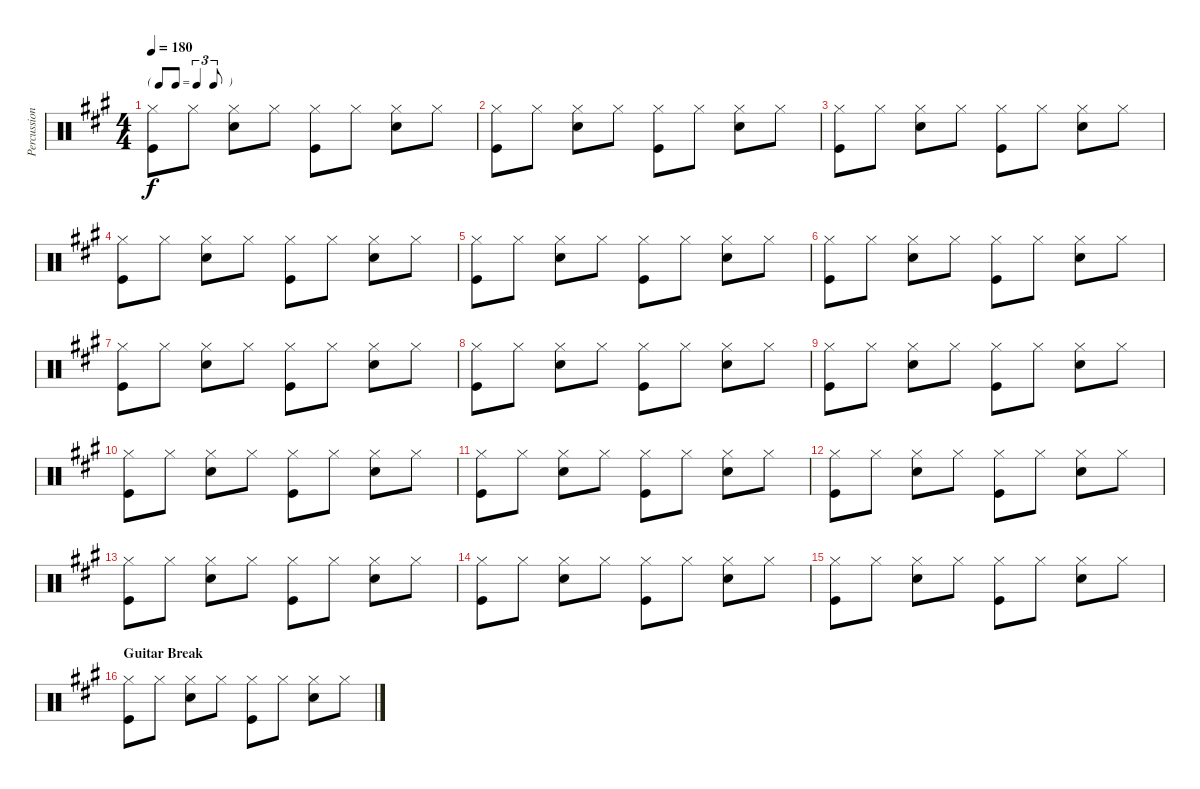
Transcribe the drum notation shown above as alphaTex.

\track ("Percussion" "Percussion") {instrument percussion}
\staff {score}
\articulation defaults
\ts (4 4)
\tf triplet8th
\tempo 180
\clef neutral
\ks a
("Hi-Hat (closed)" "Kick (hit)").8{dy f} "Hi-Hat (closed)".8 ("Hi-Hat (closed)" "Snare (hit) 2").8 "Hi-Hat (closed)".8 ("Hi-Hat (closed)" "Kick (hit)").8 "Hi-Hat (closed)".8 ("Hi-Hat (closed)" "Snare (hit) 2").8 "Hi-Hat (closed)".8 |
("Hi-Hat (closed)" "Kick (hit)").8 "Hi-Hat (closed)".8 ("Hi-Hat (closed)" "Snare (hit) 2").8 "Hi-Hat (closed)".8 ("Hi-Hat (closed)" "Kick (hit)").8 "Hi-Hat (closed)".8 ("Hi-Hat (closed)" "Snare (hit) 2").8 "Hi-Hat (closed)".8 |
("Hi-Hat (closed)" "Kick (hit)").8 "Hi-Hat (closed)".8 ("Hi-Hat (closed)" "Snare (hit) 2").8 "Hi-Hat (closed)".8 ("Hi-Hat (closed)" "Kick (hit)").8 "Hi-Hat (closed)".8 ("Hi-Hat (closed)" "Snare (hit) 2").8 "Hi-Hat (closed)".8 |
("Hi-Hat (closed)" "Kick (hit)").8 "Hi-Hat (closed)".8 ("Hi-Hat (closed)" "Snare (hit) 2").8 "Hi-Hat (closed)".8 ("Hi-Hat (closed)" "Kick (hit)").8 "Hi-Hat (closed)".8 ("Hi-Hat (closed)" "Snare (hit) 2").8 "Hi-Hat (closed)".8 |
("Hi-Hat (closed)" "Kick (hit)").8 "Hi-Hat (closed)".8 ("Hi-Hat (closed)" "Snare (hit) 2").8 "Hi-Hat (closed)".8 ("Hi-Hat (closed)" "Kick (hit)").8 "Hi-Hat (closed)".8 ("Hi-Hat (closed)" "Snare (hit) 2").8 "Hi-Hat (closed)".8 |
("Hi-Hat (closed)" "Kick (hit)").8 "Hi-Hat (closed)".8 ("Hi-Hat (closed)" "Snare (hit) 2").8 "Hi-Hat (closed)".8 ("Hi-Hat (closed)" "Kick (hit)").8 "Hi-Hat (closed)".8 ("Hi-Hat (closed)" "Snare (hit) 2").8 "Hi-Hat (closed)".8 |
("Hi-Hat (closed)" "Kick (hit)").8 "Hi-Hat (closed)".8 ("Hi-Hat (closed)" "Snare (hit) 2").8 "Hi-Hat (closed)".8 ("Hi-Hat (closed)" "Kick (hit)").8 "Hi-Hat (closed)".8 ("Hi-Hat (closed)" "Snare (hit) 2").8 "Hi-Hat (closed)".8 |
("Hi-Hat (closed)" "Kick (hit)").8 "Hi-Hat (closed)".8 ("Hi-Hat (closed)" "Snare (hit) 2").8 "Hi-Hat (closed)".8 ("Hi-Hat (closed)" "Kick (hit)").8 "Hi-Hat (closed)".8 ("Hi-Hat (closed)" "Snare (hit) 2").8 "Hi-Hat (closed)".8 |
("Hi-Hat (closed)" "Kick (hit)").8 "Hi-Hat (closed)".8 ("Hi-Hat (closed)" "Snare (hit) 2").8 "Hi-Hat (closed)".8 ("Hi-Hat (closed)" "Kick (hit)").8 "Hi-Hat (closed)".8 ("Hi-Hat (closed)" "Snare (hit) 2").8 "Hi-Hat (closed)".8 |
("Hi-Hat (closed)" "Kick (hit)").8 "Hi-Hat (closed)".8 ("Hi-Hat (closed)" "Snare (hit) 2").8 "Hi-Hat (closed)".8 ("Hi-Hat (closed)" "Kick (hit)").8 "Hi-Hat (closed)".8 ("Hi-Hat (closed)" "Snare (hit) 2").8 "Hi-Hat (closed)".8 |
("Hi-Hat (closed)" "Kick (hit)").8 "Hi-Hat (closed)".8 ("Hi-Hat (closed)" "Snare (hit) 2").8 "Hi-Hat (closed)".8 ("Hi-Hat (closed)" "Kick (hit)").8 "Hi-Hat (closed)".8 ("Hi-Hat (closed)" "Snare (hit) 2").8 "Hi-Hat (closed)".8 |
("Hi-Hat (closed)" "Kick (hit)").8 "Hi-Hat (closed)".8 ("Hi-Hat (closed)" "Snare (hit) 2").8 "Hi-Hat (closed)".8 ("Hi-Hat (closed)" "Kick (hit)").8 "Hi-Hat (closed)".8 ("Hi-Hat (closed)" "Snare (hit) 2").8 "Hi-Hat (closed)".8 |
("Hi-Hat (closed)" "Kick (hit)").8 "Hi-Hat (closed)".8 ("Hi-Hat (closed)" "Snare (hit) 2").8 "Hi-Hat (closed)".8 ("Hi-Hat (closed)" "Kick (hit)").8 "Hi-Hat (closed)".8 ("Hi-Hat (closed)" "Snare (hit) 2").8 "Hi-Hat (closed)".8 |
("Hi-Hat (closed)" "Kick (hit)").8 "Hi-Hat (closed)".8 ("Hi-Hat (closed)" "Snare (hit) 2").8 "Hi-Hat (closed)".8 ("Hi-Hat (closed)" "Kick (hit)").8 "Hi-Hat (closed)".8 ("Hi-Hat (closed)" "Snare (hit) 2").8 "Hi-Hat (closed)".8 |
("Hi-Hat (closed)" "Kick (hit)").8 "Hi-Hat (closed)".8 ("Hi-Hat (closed)" "Snare (hit) 2").8 "Hi-Hat (closed)".8 ("Hi-Hat (closed)" "Kick (hit)").8 "Hi-Hat (closed)".8 ("Hi-Hat (closed)" "Snare (hit) 2").8 "Hi-Hat (closed)".8 |
\section ("" "Guitar Break")
("Hi-Hat (closed)" "Kick (hit)").8 "Hi-Hat (closed)".8 ("Hi-Hat (closed)" "Snare (hit) 2").8 "Hi-Hat (closed)".8 ("Hi-Hat (closed)" "Kick (hit)").8 "Hi-Hat (closed)".8 ("Hi-Hat (closed)" "Snare (hit) 2").8 "Hi-Hat (closed)".8
